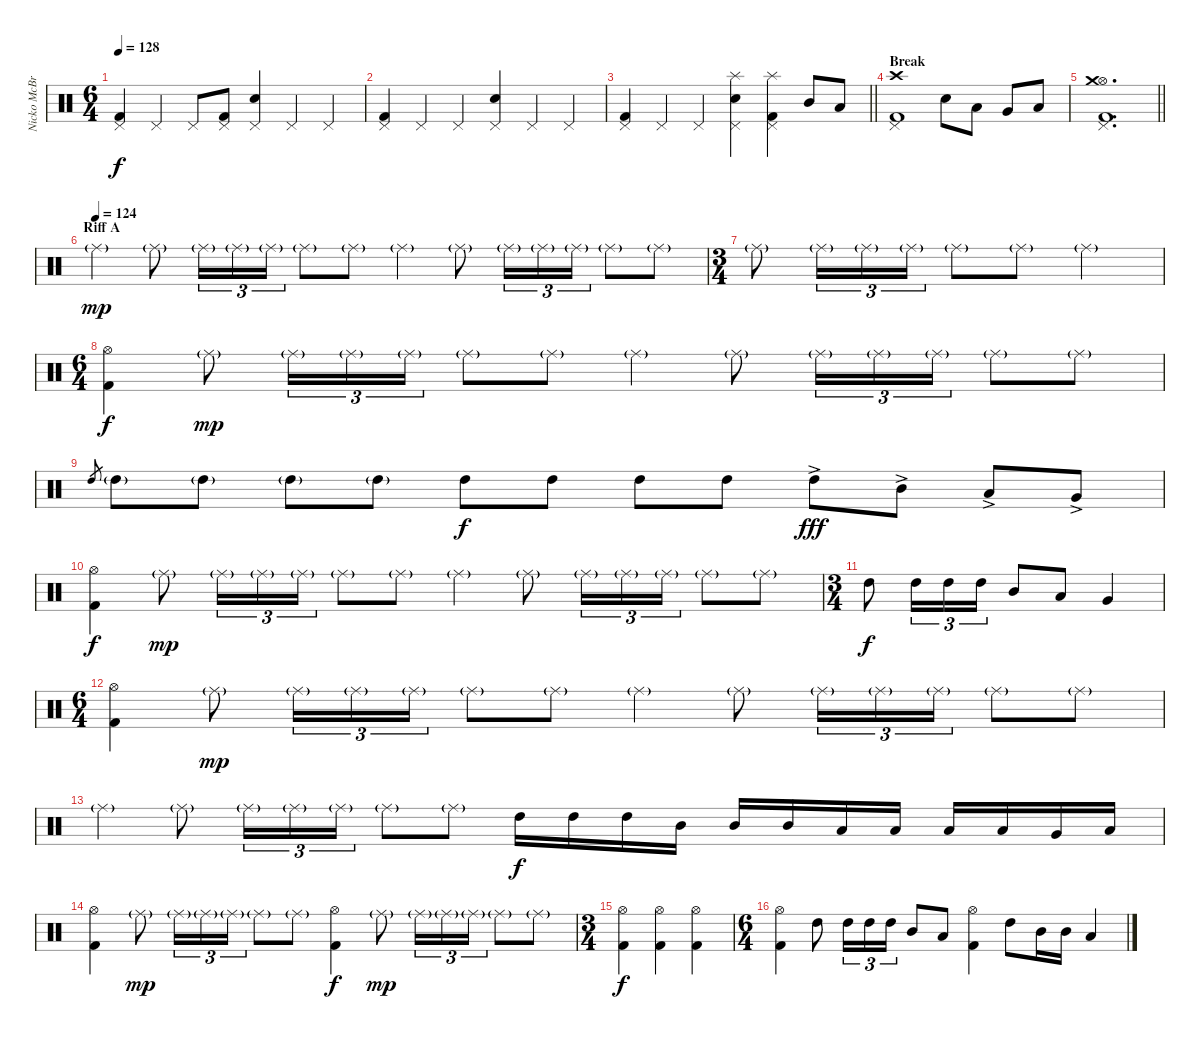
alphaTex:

\track ("Nicko McBrain" "Nicko McBr") {instrument percussion}
\staff {score}
\articulation defaults
\ts (6 4)
\tempo 128
\clef neutral
\ks c
("Kick (hit) 2" "Pedal Hi-Hat (hit)").4{dy f} "Pedal Hi-Hat (hit)".4 "Pedal Hi-Hat (hit)".8 ("Kick (hit) 2" "Pedal Hi-Hat (hit)").8 ("Snare (hit) 2" "Pedal Hi-Hat (hit)").4 "Pedal Hi-Hat (hit)".4 "Pedal Hi-Hat (hit)".4 |
("Kick (hit) 2" "Pedal Hi-Hat (hit)").4 "Pedal Hi-Hat (hit)".4 "Pedal Hi-Hat (hit)".4 ("Snare (hit) 2" "Pedal Hi-Hat (hit)").4 "Pedal Hi-Hat (hit)".4 "Pedal Hi-Hat (hit)".4 |
\barLineRight lightlight
("Kick (hit) 2" "Pedal Hi-Hat (hit)").4 "Pedal Hi-Hat (hit)".4 "Pedal Hi-Hat (hit)".4 ("Snare (hit) 2" "Pedal Hi-Hat (hit)" "Splash (hit)").4 ("Kick (hit) 2" "Pedal Hi-Hat (hit)" "Splash (hit)").4 "Mid Tom (hit)".8 "Low Tom (hit)".8 |
\section ("" "Break")
("Kick (hit) 2" "Pedal Hi-Hat (hit)" "Crash high (hit)").1 "Snare (hit) 2".8 "Low Tom (hit)".8 "Very Low Tom (hit)".8 "Low Floor Tom (hit)".8 |
\barLineRight lightlight
("Kick (hit) 2" "Pedal Hi-Hat (hit)" "Hi-Hat (open)" "Crash medium (hit)").1{d} |
\section ("" "Riff A")
\tempo (124)
"Ride (middle)"{g}.4{dy mp} "Ride (middle)"{g}.8 "Ride (middle)"{g}.16{tu (3 2)} "Ride (middle)"{g}.16{tu (3 2)} "Ride (middle)"{g}.16{tu (3 2)} "Ride (middle)"{g}.8 "Ride (middle)"{g}.8 "Ride (middle)"{g}.4 "Ride (middle)"{g}.8 "Ride (middle)"{g}.16{tu (3 2)} "Ride (middle)"{g}.16{tu (3 2)} "Ride (middle)"{g}.16{tu (3 2)} "Ride (middle)"{g}.8 "Ride (middle)"{g}.8 |
\ts (3 4)
"Ride (middle)"{g}.8 "Ride (middle)"{g}.16{tu (3 2)} "Ride (middle)"{g}.16{tu (3 2)} "Ride (middle)"{g}.16{tu (3 2)} "Ride (middle)"{g}.8 "Ride (middle)"{g}.8 "Ride (middle)"{g}.4 |
\ts (6 4)
("Kick (hit) 2" "Hi-Hat (open)").4{dy f} "Ride (middle)"{g}.8{dy mp} "Ride (middle)"{g}.16{tu (3 2)} "Ride (middle)"{g}.16{tu (3 2)} "Ride (middle)"{g}.16{tu (3 2)} "Ride (middle)"{g}.8 "Ride (middle)"{g}.8 "Ride (middle)"{g}.4 "Ride (middle)"{g}.8 "Ride (middle)"{g}.16{tu (3 2)} "Ride (middle)"{g}.16{tu (3 2)} "Ride (middle)"{g}.16{tu (3 2)} "Ride (middle)"{g}.8 "Ride (middle)"{g}.8 |
"High Tom (hit)".8{gr} "High Tom (hit)"{g}.8 "High Tom (hit)"{g}.8 "High Tom (hit)"{g}.8 "High Tom (hit)"{g}.8 "High Tom (hit)".8{dy f} "High Tom (hit)".8 "High Tom (hit)".8 "High Tom (hit)".8 "High Tom (hit)"{ac}.8{dy fff} "Mid Tom (hit)"{ac}.8 "Low Tom (hit)"{ac}.8 "Very Low Tom (hit)"{ac}.8 |
("Kick (hit) 2" "Hi-Hat (open)").4{dy f} "Ride (middle)"{g}.8{dy mp} "Ride (middle)"{g}.16{tu (3 2)} "Ride (middle)"{g}.16{tu (3 2)} "Ride (middle)"{g}.16{tu (3 2)} "Ride (middle)"{g}.8 "Ride (middle)"{g}.8 "Ride (middle)"{g}.4 "Ride (middle)"{g}.8 "Ride (middle)"{g}.16{tu (3 2)} "Ride (middle)"{g}.16{tu (3 2)} "Ride (middle)"{g}.16{tu (3 2)} "Ride (middle)"{g}.8 "Ride (middle)"{g}.8 |
\ts (3 4)
"High Tom (hit)".8{dy f} "High Tom (hit)".16{tu (3 2)} "High Tom (hit)".16{tu (3 2)} "High Tom (hit)".16{tu (3 2)} "Mid Tom (hit)".8 "Low Tom (hit)".8 "Very Low Tom (hit)".4 |
\ts (6 4)
("Kick (hit) 2" "Hi-Hat (open)").4 "Ride (middle)"{g}.8{dy mp} "Ride (middle)"{g}.16{tu (3 2)} "Ride (middle)"{g}.16{tu (3 2)} "Ride (middle)"{g}.16{tu (3 2)} "Ride (middle)"{g}.8 "Ride (middle)"{g}.8 "Ride (middle)"{g}.4 "Ride (middle)"{g}.8 "Ride (middle)"{g}.16{tu (3 2)} "Ride (middle)"{g}.16{tu (3 2)} "Ride (middle)"{g}.16{tu (3 2)} "Ride (middle)"{g}.8 "Ride (middle)"{g}.8 |
"Ride (middle)"{g}.4 "Ride (middle)"{g}.8 "Ride (middle)"{g}.16{tu (3 2)} "Ride (middle)"{g}.16{tu (3 2)} "Ride (middle)"{g}.16{tu (3 2)} "Ride (middle)"{g}.8 "Ride (middle)"{g}.8 "High Tom (hit)".16{dy f} "High Tom (hit)".16 "High Tom (hit)".16 "Mid Tom (hit)".16 "Mid Tom (hit)".16 "Mid Tom (hit)".16 "Low Tom (hit)".16 "Low Tom (hit)".16 "Low Tom (hit)".16 "Low Tom (hit)".16 "Very Low Tom (hit)".16 "Low Floor Tom (hit)".16 |
("Kick (hit) 2" "Hi-Hat (open)").4 "Ride (middle)"{g}.8{dy mp} "Ride (middle)"{g}.16{tu (3 2)} "Ride (middle)"{g}.16{tu (3 2)} "Ride (middle)"{g}.16{tu (3 2)} "Ride (middle)"{g}.8 "Ride (middle)"{g}.8 ("Kick (hit) 2" "Hi-Hat (open)").4{dy f} "Ride (middle)"{g}.8{dy mp} "Ride (middle)"{g}.16{tu (3 2)} "Ride (middle)"{g}.16{tu (3 2)} "Ride (middle)"{g}.16{tu (3 2)} "Ride (middle)"{g}.8 "Ride (middle)"{g}.8 |
\ts (3 4)
("Kick (hit) 2" "Hi-Hat (open)").4{dy f} ("Kick (hit) 2" "Hi-Hat (open)").4 ("Kick (hit) 2" "Hi-Hat (open)").4 |
\ts (6 4)
("Kick (hit) 2" "Hi-Hat (open)").4 "High Tom (hit)".8 "High Tom (hit)".16{tu (3 2)} "High Tom (hit)".16{tu (3 2)} "High Tom (hit)".16{tu (3 2)} "Mid Tom (hit)".8 "Low Tom (hit)".8 ("Kick (hit) 2" "Hi-Hat (open)").4 "High Tom (hit)".8 "Mid Tom (hit)".16 "Mid Tom (hit)".16 "Low Tom (hit)".4
